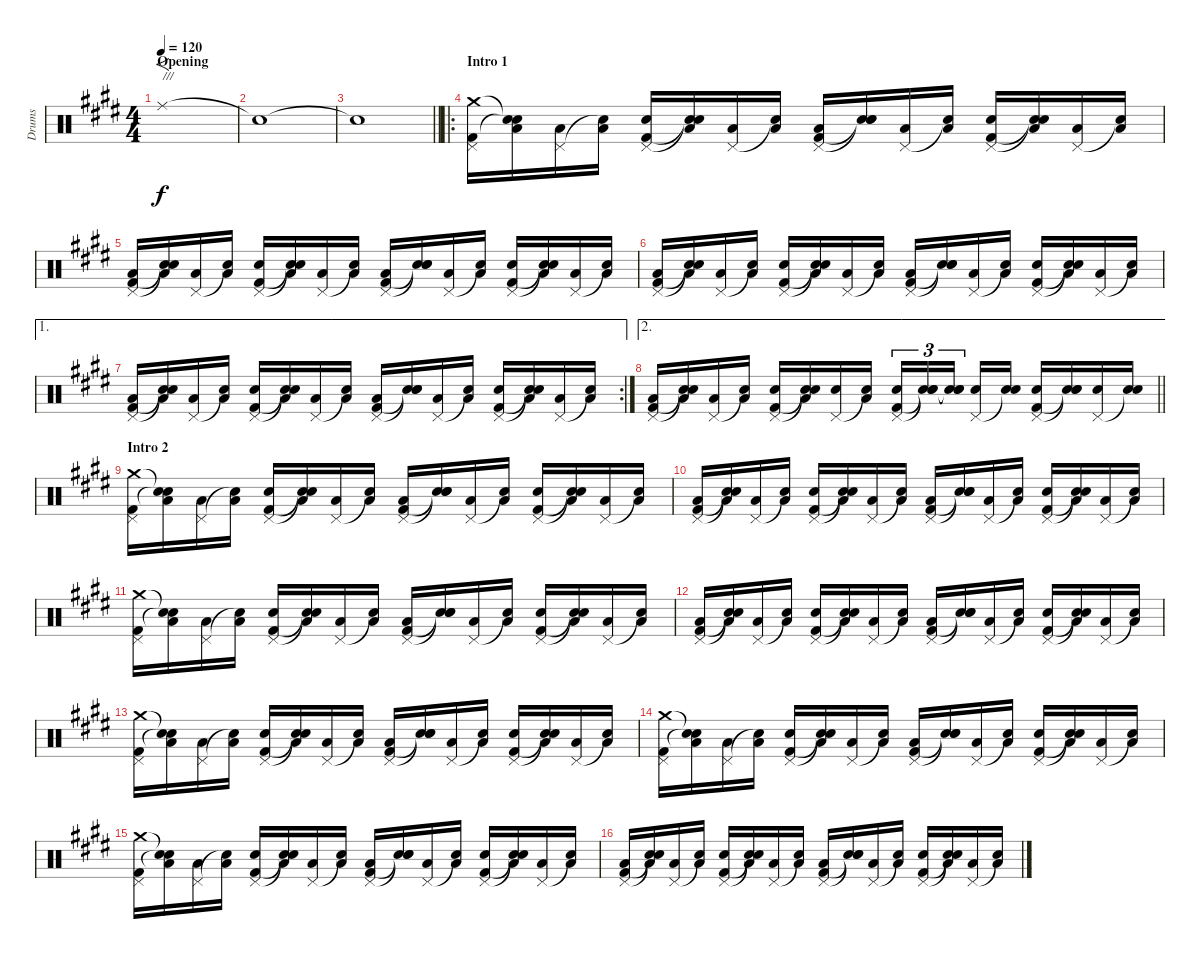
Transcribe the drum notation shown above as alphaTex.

\track ("Drums" "Drums") {instrument percussion}
\staff {score}
\articulation defaults
\ts (4 4)
\section ("" "Opening")
\tempo 120
\clef neutral
\ks e "Ride (middle)".1{f txt "///" dy f}
|
"Snare (hit)"{t}.1 |
\barLineRight lightlight "Snare (hit)"{t}.1
|
\ro
\section ("" "Intro 1")
("Crash medium (hit)" "Pedal Hi-Hat (hit)" "Kick (hit) 2").16 ("Snare (hit)"{t} "Low Floor Tom (hit)" "Snare (hit)"{t}).16 ("Pedal Hi-Hat (hit)" "Low Floor Tom (hit)").16 ("Snare (hit)"{t} "Low Floor Tom (hit)").16 ("Pedal Hi-Hat (hit)" "Electric Snare (hit)" "Kick (hit) 2").16 ("Snare (hit)"{t} "Low Floor Tom (hit)" "Snare (hit)"{t}).16 ("Pedal Hi-Hat (hit)" "Low Floor Tom (hit)").16 ("Snare (hit)"{t} "Low Floor Tom (hit)").16 ("Pedal Hi-Hat (hit)" "Low Floor Tom (hit)" "Kick (hit) 2").16 ("Snare (hit)"{t} "Electric Snare (hit)" "Snare (hit)"{t}).16 ("Pedal Hi-Hat (hit)" "Low Floor Tom (hit)").16 ("Snare (hit)"{t} "Low Floor Tom (hit)").16 ("Pedal Hi-Hat (hit)" "Electric Snare (hit)" "Kick (hit) 2").16 ("Snare (hit)"{t} "Low Floor Tom (hit)" "Snare (hit)"{t}).16 ("Pedal Hi-Hat (hit)" "Low Floor Tom (hit)").16 ("Snare (hit)"{t} "Low Floor Tom (hit)").16 |
("Pedal Hi-Hat (hit)" "Low Floor Tom (hit)" "Kick (hit) 2").16 ("Snare (hit)"{t} "Low Floor Tom (hit)" "Snare (hit)"{t}).16 ("Pedal Hi-Hat (hit)" "Low Floor Tom (hit)").16 ("Snare (hit)"{t} "Low Floor Tom (hit)").16 ("Pedal Hi-Hat (hit)" "Electric Snare (hit)" "Kick (hit) 2").16 ("Snare (hit)"{t} "Low Floor Tom (hit)" "Snare (hit)"{t}).16 ("Pedal Hi-Hat (hit)" "Low Floor Tom (hit)").16 ("Snare (hit)"{t} "Low Floor Tom (hit)").16 ("Pedal Hi-Hat (hit)" "Low Floor Tom (hit)" "Kick (hit) 2").16 ("Snare (hit)"{t} "Electric Snare (hit)" "Snare (hit)"{t}).16 ("Pedal Hi-Hat (hit)" "Low Floor Tom (hit)").16 ("Snare (hit)"{t} "Low Floor Tom (hit)").16 ("Pedal Hi-Hat (hit)" "Electric Snare (hit)" "Kick (hit) 2").16 ("Snare (hit)"{t} "Low Floor Tom (hit)" "Snare (hit)"{t}).16 ("Pedal Hi-Hat (hit)" "Low Floor Tom (hit)").16 ("Snare (hit)"{t} "Low Floor Tom (hit)").16 |
("Pedal Hi-Hat (hit)" "Low Floor Tom (hit)" "Kick (hit) 2").16 ("Snare (hit)"{t} "Low Floor Tom (hit)" "Snare (hit)"{t}).16 ("Pedal Hi-Hat (hit)" "Low Floor Tom (hit)").16 ("Snare (hit)"{t} "Low Floor Tom (hit)").16 ("Pedal Hi-Hat (hit)" "Electric Snare (hit)" "Kick (hit) 2").16 ("Snare (hit)"{t} "Low Floor Tom (hit)" "Snare (hit)"{t}).16 ("Pedal Hi-Hat (hit)" "Low Floor Tom (hit)").16 ("Snare (hit)"{t} "Low Floor Tom (hit)").16 ("Pedal Hi-Hat (hit)" "Low Floor Tom (hit)" "Kick (hit) 2").16 ("Snare (hit)"{t} "Electric Snare (hit)" "Snare (hit)"{t}).16 ("Pedal Hi-Hat (hit)" "Low Floor Tom (hit)").16 ("Snare (hit)"{t} "Low Floor Tom (hit)").16 ("Pedal Hi-Hat (hit)" "Electric Snare (hit)" "Kick (hit) 2").16 ("Snare (hit)"{t} "Low Floor Tom (hit)" "Snare (hit)"{t}).16 ("Pedal Hi-Hat (hit)" "Low Floor Tom (hit)").16 ("Snare (hit)"{t} "Low Floor Tom (hit)").16 |
\ae 1
\rc 2
("Pedal Hi-Hat (hit)" "Low Floor Tom (hit)" "Kick (hit) 2").16 ("Snare (hit)"{t} "Low Floor Tom (hit)" "Snare (hit)"{t}).16 ("Pedal Hi-Hat (hit)" "Low Floor Tom (hit)").16 ("Snare (hit)"{t} "Low Floor Tom (hit)").16 ("Pedal Hi-Hat (hit)" "Electric Snare (hit)" "Kick (hit) 2").16 ("Snare (hit)"{t} "Low Floor Tom (hit)" "Snare (hit)"{t}).16 ("Pedal Hi-Hat (hit)" "Low Floor Tom (hit)").16 ("Snare (hit)"{t} "Low Floor Tom (hit)").16 ("Pedal Hi-Hat (hit)" "Low Floor Tom (hit)" "Kick (hit) 2").16 ("Snare (hit)"{t} "Electric Snare (hit)" "Snare (hit)"{t}).16 ("Pedal Hi-Hat (hit)" "Low Floor Tom (hit)").16 ("Snare (hit)"{t} "Low Floor Tom (hit)").16 ("Pedal Hi-Hat (hit)" "Electric Snare (hit)" "Kick (hit) 2").16 ("Snare (hit)"{t} "Low Floor Tom (hit)" "Snare (hit)"{t}).16 ("Pedal Hi-Hat (hit)" "Low Floor Tom (hit)").16 ("Snare (hit)"{t} "Low Floor Tom (hit)").16 |
\ae 2
\barLineRight lightlight
("Pedal Hi-Hat (hit)" "Low Floor Tom (hit)" "Kick (hit) 2").16 ("Snare (hit)"{t} "Low Floor Tom (hit)" "Snare (hit)"{t}).16 ("Pedal Hi-Hat (hit)" "Low Floor Tom (hit)").16 ("Snare (hit)"{t} "Low Floor Tom (hit)").16 ("Pedal Hi-Hat (hit)" "Electric Snare (hit)" "Kick (hit) 2").16 ("Snare (hit)"{t} "Low Floor Tom (hit)" "Snare (hit)"{t}).16 ("Pedal Hi-Hat (hit)" "Electric Snare (hit)").16 ("Snare (hit)"{t} "Low Floor Tom (hit)").16 ("Pedal Hi-Hat (hit)" "Electric Snare (hit)" "Kick (hit) 2").16{tu (3 2)} ("Snare (hit)"{t} "Electric Snare (hit)" "Snare (hit)"{t}).16{tu (3 2)} ("Snare (hit)"{t} "Electric Snare (hit)" "Snare (hit)"{t}).16{tu (3 2)} ("Pedal Hi-Hat (hit)" "Electric Snare (hit)").16 ("Snare (hit)"{t} "Electric Snare (hit)").16 ("Pedal Hi-Hat (hit)" "Electric Snare (hit)" "Kick (hit) 2").16 ("Snare (hit)"{t} "Electric Snare (hit)" "Snare (hit)"{t}).16 ("Pedal Hi-Hat (hit)" "Electric Snare (hit)").16 ("Snare (hit)"{t} "Electric Snare (hit)").16 |
\section ("" "Intro 2")
("Crash medium (hit)" "Pedal Hi-Hat (hit)" "Kick (hit) 2").16 ("Snare (hit)"{t} "Low Floor Tom (hit)" "Snare (hit)"{t}).16 ("Pedal Hi-Hat (hit)" "Low Floor Tom (hit)").16 ("Snare (hit)"{t} "Low Floor Tom (hit)").16 ("Pedal Hi-Hat (hit)" "Electric Snare (hit)" "Kick (hit) 2").16 ("Snare (hit)"{t} "Low Floor Tom (hit)" "Snare (hit)"{t}).16 ("Pedal Hi-Hat (hit)" "Low Floor Tom (hit)").16 ("Snare (hit)"{t} "Low Floor Tom (hit)").16 ("Pedal Hi-Hat (hit)" "Low Floor Tom (hit)" "Kick (hit) 2").16 ("Snare (hit)"{t} "Electric Snare (hit)" "Snare (hit)"{t}).16 ("Pedal Hi-Hat (hit)" "Low Floor Tom (hit)").16 ("Snare (hit)"{t} "Low Floor Tom (hit)").16 ("Pedal Hi-Hat (hit)" "Electric Snare (hit)" "Kick (hit) 2").16 ("Snare (hit)"{t} "Low Floor Tom (hit)" "Snare (hit)"{t}).16 ("Pedal Hi-Hat (hit)" "Low Floor Tom (hit)").16 ("Snare (hit)"{t} "Low Floor Tom (hit)").16 |
("Pedal Hi-Hat (hit)" "Low Floor Tom (hit)" "Kick (hit) 2").16 ("Snare (hit)"{t} "Low Floor Tom (hit)" "Snare (hit)"{t}).16 ("Pedal Hi-Hat (hit)" "Low Floor Tom (hit)").16 ("Snare (hit)"{t} "Low Floor Tom (hit)").16 ("Pedal Hi-Hat (hit)" "Electric Snare (hit)" "Kick (hit) 2").16 ("Snare (hit)"{t} "Low Floor Tom (hit)" "Snare (hit)"{t}).16 ("Pedal Hi-Hat (hit)" "Low Floor Tom (hit)").16 ("Snare (hit)"{t} "Low Floor Tom (hit)").16 ("Pedal Hi-Hat (hit)" "Low Floor Tom (hit)" "Kick (hit) 2").16 ("Snare (hit)"{t} "Electric Snare (hit)" "Snare (hit)"{t}).16 ("Pedal Hi-Hat (hit)" "Low Floor Tom (hit)").16 ("Snare (hit)"{t} "Low Floor Tom (hit)").16 ("Pedal Hi-Hat (hit)" "Electric Snare (hit)" "Kick (hit) 2").16 ("Snare (hit)"{t} "Low Floor Tom (hit)" "Snare (hit)"{t}).16 ("Pedal Hi-Hat (hit)" "Low Floor Tom (hit)").16 ("Snare (hit)"{t} "Low Floor Tom (hit)").16 |
("Crash medium (hit)" "Pedal Hi-Hat (hit)" "Kick (hit) 2").16 ("Snare (hit)"{t} "Low Floor Tom (hit)" "Snare (hit)"{t}).16 ("Pedal Hi-Hat (hit)" "Low Floor Tom (hit)").16 ("Snare (hit)"{t} "Low Floor Tom (hit)").16 ("Pedal Hi-Hat (hit)" "Electric Snare (hit)" "Kick (hit) 2").16 ("Snare (hit)"{t} "Low Floor Tom (hit)" "Snare (hit)"{t}).16 ("Pedal Hi-Hat (hit)" "Low Floor Tom (hit)").16 ("Snare (hit)"{t} "Low Floor Tom (hit)").16 ("Pedal Hi-Hat (hit)" "Low Floor Tom (hit)" "Kick (hit) 2").16 ("Snare (hit)"{t} "Electric Snare (hit)" "Snare (hit)"{t}).16 ("Pedal Hi-Hat (hit)" "Low Floor Tom (hit)").16 ("Snare (hit)"{t} "Low Floor Tom (hit)").16 ("Pedal Hi-Hat (hit)" "Electric Snare (hit)" "Kick (hit) 2").16 ("Snare (hit)"{t} "Low Floor Tom (hit)" "Snare (hit)"{t}).16 ("Pedal Hi-Hat (hit)" "Low Floor Tom (hit)").16 ("Snare (hit)"{t} "Low Floor Tom (hit)").16 |
("Pedal Hi-Hat (hit)" "Low Floor Tom (hit)" "Kick (hit) 2").16 ("Snare (hit)"{t} "Low Floor Tom (hit)" "Snare (hit)"{t}).16 ("Pedal Hi-Hat (hit)" "Low Floor Tom (hit)").16 ("Snare (hit)"{t} "Low Floor Tom (hit)").16 ("Pedal Hi-Hat (hit)" "Electric Snare (hit)" "Kick (hit) 2").16 ("Snare (hit)"{t} "Low Floor Tom (hit)" "Snare (hit)"{t}).16 ("Pedal Hi-Hat (hit)" "Low Floor Tom (hit)").16 ("Snare (hit)"{t} "Low Floor Tom (hit)").16 ("Pedal Hi-Hat (hit)" "Low Floor Tom (hit)" "Kick (hit) 2").16 ("Snare (hit)"{t} "Electric Snare (hit)" "Snare (hit)"{t}).16 ("Pedal Hi-Hat (hit)" "Low Floor Tom (hit)").16 ("Snare (hit)"{t} "Low Floor Tom (hit)").16 ("Pedal Hi-Hat (hit)" "Electric Snare (hit)" "Kick (hit) 2").16 ("Snare (hit)"{t} "Low Floor Tom (hit)" "Snare (hit)"{t}).16 ("Pedal Hi-Hat (hit)" "Low Floor Tom (hit)").16 ("Snare (hit)"{t} "Low Floor Tom (hit)").16 |
("Crash medium (hit)" "Pedal Hi-Hat (hit)" "Kick (hit) 2").16 ("Snare (hit)"{t} "Low Floor Tom (hit)" "Snare (hit)"{t}).16 ("Pedal Hi-Hat (hit)" "Low Floor Tom (hit)").16 ("Snare (hit)"{t} "Low Floor Tom (hit)").16 ("Pedal Hi-Hat (hit)" "Electric Snare (hit)" "Kick (hit) 2").16 ("Snare (hit)"{t} "Low Floor Tom (hit)" "Snare (hit)"{t}).16 ("Pedal Hi-Hat (hit)" "Low Floor Tom (hit)").16 ("Snare (hit)"{t} "Low Floor Tom (hit)").16 ("Pedal Hi-Hat (hit)" "Low Floor Tom (hit)" "Kick (hit) 2").16 ("Snare (hit)"{t} "Electric Snare (hit)" "Snare (hit)"{t}).16 ("Pedal Hi-Hat (hit)" "Low Floor Tom (hit)").16 ("Snare (hit)"{t} "Low Floor Tom (hit)").16 ("Pedal Hi-Hat (hit)" "Electric Snare (hit)" "Kick (hit) 2").16 ("Snare (hit)"{t} "Low Floor Tom (hit)" "Snare (hit)"{t}).16 ("Pedal Hi-Hat (hit)" "Low Floor Tom (hit)").16 ("Snare (hit)"{t} "Low Floor Tom (hit)").16 |
("Crash medium (hit)" "Pedal Hi-Hat (hit)" "Kick (hit) 2").16 ("Snare (hit)"{t} "Low Floor Tom (hit)" "Snare (hit)"{t}).16 ("Pedal Hi-Hat (hit)" "Low Floor Tom (hit)").16 ("Snare (hit)"{t} "Low Floor Tom (hit)").16 ("Pedal Hi-Hat (hit)" "Electric Snare (hit)" "Kick (hit) 2").16 ("Snare (hit)"{t} "Low Floor Tom (hit)" "Snare (hit)"{t}).16 ("Pedal Hi-Hat (hit)" "Low Floor Tom (hit)").16 ("Snare (hit)"{t} "Low Floor Tom (hit)").16 ("Pedal Hi-Hat (hit)" "Low Floor Tom (hit)" "Kick (hit) 2").16 ("Snare (hit)"{t} "Electric Snare (hit)" "Snare (hit)"{t}).16 ("Pedal Hi-Hat (hit)" "Low Floor Tom (hit)").16 ("Snare (hit)"{t} "Low Floor Tom (hit)").16 ("Pedal Hi-Hat (hit)" "Electric Snare (hit)" "Kick (hit) 2").16 ("Snare (hit)"{t} "Low Floor Tom (hit)" "Snare (hit)"{t}).16 ("Pedal Hi-Hat (hit)" "Low Floor Tom (hit)").16 ("Snare (hit)"{t} "Low Floor Tom (hit)").16 |
("Crash medium (hit)" "Pedal Hi-Hat (hit)" "Kick (hit) 2").16 ("Snare (hit)"{t} "Low Floor Tom (hit)" "Snare (hit)"{t}).16 ("Pedal Hi-Hat (hit)" "Low Floor Tom (hit)").16 ("Snare (hit)"{t} "Low Floor Tom (hit)").16 ("Pedal Hi-Hat (hit)" "Electric Snare (hit)" "Kick (hit) 2").16 ("Snare (hit)"{t} "Low Floor Tom (hit)" "Snare (hit)"{t}).16 ("Pedal Hi-Hat (hit)" "Low Floor Tom (hit)").16 ("Snare (hit)"{t} "Low Floor Tom (hit)").16 ("Pedal Hi-Hat (hit)" "Low Floor Tom (hit)" "Kick (hit) 2").16 ("Snare (hit)"{t} "Electric Snare (hit)" "Snare (hit)"{t}).16 ("Pedal Hi-Hat (hit)" "Low Floor Tom (hit)").16 ("Snare (hit)"{t} "Low Floor Tom (hit)").16 ("Pedal Hi-Hat (hit)" "Electric Snare (hit)" "Kick (hit) 2").16 ("Snare (hit)"{t} "Low Floor Tom (hit)" "Snare (hit)"{t}).16 ("Pedal Hi-Hat (hit)" "Low Floor Tom (hit)").16 ("Snare (hit)"{t} "Low Floor Tom (hit)").16 |
("Pedal Hi-Hat (hit)" "Low Floor Tom (hit)" "Kick (hit) 2").16 ("Snare (hit)"{t} "Low Floor Tom (hit)" "Snare (hit)"{t}).16 ("Pedal Hi-Hat (hit)" "Low Floor Tom (hit)").16 ("Snare (hit)"{t} "Low Floor Tom (hit)").16 ("Pedal Hi-Hat (hit)" "Electric Snare (hit)" "Kick (hit) 2").16 ("Snare (hit)"{t} "Low Floor Tom (hit)" "Snare (hit)"{t}).16 ("Pedal Hi-Hat (hit)" "Low Floor Tom (hit)").16 ("Snare (hit)"{t} "Low Floor Tom (hit)").16 ("Pedal Hi-Hat (hit)" "Low Floor Tom (hit)" "Kick (hit) 2").16 ("Snare (hit)"{t} "Electric Snare (hit)" "Snare (hit)"{t}).16 ("Pedal Hi-Hat (hit)" "Low Floor Tom (hit)").16 ("Snare (hit)"{t} "Low Floor Tom (hit)").16 ("Pedal Hi-Hat (hit)" "Electric Snare (hit)" "Kick (hit) 2").16 ("Snare (hit)"{t} "Low Floor Tom (hit)" "Snare (hit)"{t}).16 ("Pedal Hi-Hat (hit)" "Low Floor Tom (hit)").16 ("Snare (hit)"{t} "Low Floor Tom (hit)").16
